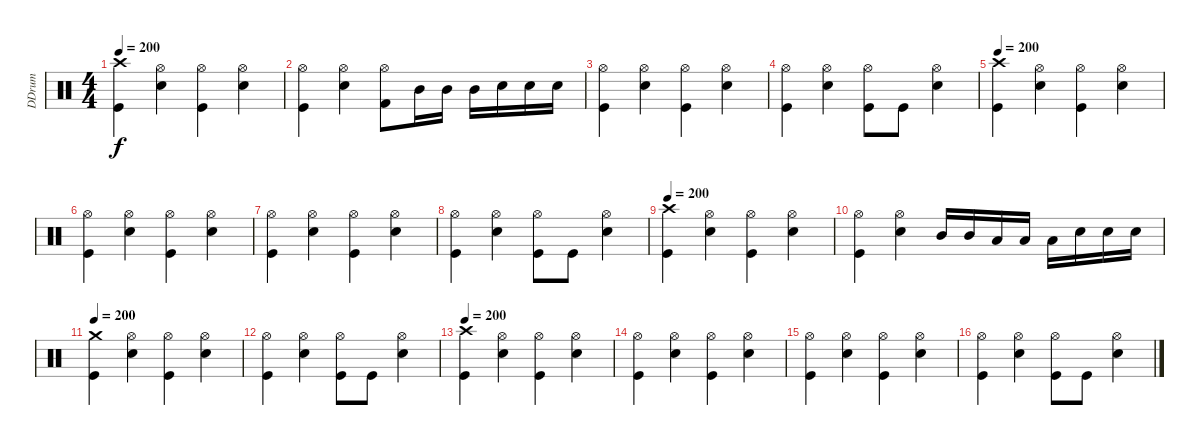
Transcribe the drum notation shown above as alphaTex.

\track ("DDrum" "DDrum") {instrument percussion}
\staff {score}
\articulation defaults
\ts (4 4)
\tempo 200
\clef neutral
\ks c
("Crash high (hit)" "Kick (hit)").4{dy f} ("Hi-Hat (open)" "Electric Snare (hit)").4 ("Hi-Hat (open)" "Kick (hit)").4 ("Hi-Hat (open)" "Electric Snare (hit)").4 |
("Hi-Hat (open)" "Kick (hit)").4 ("Hi-Hat (open)" "Electric Snare (hit)").4 ("Hi-Hat (open)" "Kick (hit) 2").8 "Mid Tom (hit)".16 "Mid Tom (hit)".16 "Mid Tom (hit)".16 "Electric Snare (hit)".16 "Electric Snare (hit)".16 "Electric Snare (hit)".16 |
("Hi-Hat (open)" "Kick (hit)").4 ("Hi-Hat (open)" "Electric Snare (hit)").4 ("Hi-Hat (open)" "Kick (hit)").4 ("Hi-Hat (open)" "Electric Snare (hit)").4 |
("Hi-Hat (open)" "Kick (hit)").4 ("Hi-Hat (open)" "Electric Snare (hit)").4 ("Hi-Hat (open)" "Kick (hit)").8 "Kick (hit)".8 ("Hi-Hat (open)" "Electric Snare (hit)").4 |
\tempo 200
("Crash high (hit)" "Kick (hit)").4 ("Hi-Hat (open)" "Electric Snare (hit)").4 ("Hi-Hat (open)" "Kick (hit)").4 ("Hi-Hat (open)" "Electric Snare (hit)").4 |
("Hi-Hat (open)" "Kick (hit)").4 ("Hi-Hat (open)" "Electric Snare (hit)").4 ("Hi-Hat (open)" "Kick (hit)").4 ("Hi-Hat (open)" "Electric Snare (hit)").4 |
("Hi-Hat (open)" "Kick (hit)").4 ("Hi-Hat (open)" "Electric Snare (hit)").4 ("Hi-Hat (open)" "Kick (hit)").4 ("Hi-Hat (open)" "Electric Snare (hit)").4 |
("Hi-Hat (open)" "Kick (hit)").4 ("Hi-Hat (open)" "Electric Snare (hit)").4 ("Hi-Hat (open)" "Kick (hit)").8 "Kick (hit)".8 ("Hi-Hat (open)" "Electric Snare (hit)").4 |
\tempo 200
("Crash high (hit)" "Kick (hit)").4 ("Hi-Hat (open)" "Electric Snare (hit)").4 ("Hi-Hat (open)" "Kick (hit)").4 ("Hi-Hat (open)" "Electric Snare (hit)").4 |
("Hi-Hat (open)" "Kick (hit)").4 ("Hi-Hat (open)" "Electric Snare (hit)").4 "Mid Tom (hit)".16 "Mid Tom (hit)".16 "Low Tom (hit)".16 "Low Tom (hit)".16 "Low Tom (hit)".16 "Electric Snare (hit)".16 "Electric Snare (hit)".16 "Electric Snare (hit)".16 |
\tempo 200
("Crash medium (hit)" "Kick (hit)").4 ("Hi-Hat (open)" "Electric Snare (hit)").4 ("Hi-Hat (open)" "Kick (hit)").4 ("Hi-Hat (open)" "Electric Snare (hit)").4 |
("Hi-Hat (open)" "Kick (hit)").4 ("Hi-Hat (open)" "Electric Snare (hit)").4 ("Hi-Hat (open)" "Kick (hit)").8 "Kick (hit)".8 ("Hi-Hat (open)" "Electric Snare (hit)").4 |
\tempo 200
("Crash high (hit)" "Kick (hit)").4 ("Hi-Hat (open)" "Electric Snare (hit)").4 ("Hi-Hat (open)" "Kick (hit)").4 ("Hi-Hat (open)" "Electric Snare (hit)").4 |
("Hi-Hat (open)" "Kick (hit)").4 ("Hi-Hat (open)" "Electric Snare (hit)").4 ("Hi-Hat (open)" "Kick (hit)").4 ("Hi-Hat (open)" "Electric Snare (hit)").4 |
("Hi-Hat (open)" "Kick (hit)").4 ("Hi-Hat (open)" "Electric Snare (hit)").4 ("Hi-Hat (open)" "Kick (hit)").4 ("Hi-Hat (open)" "Electric Snare (hit)").4 |
("Hi-Hat (open)" "Kick (hit)").4 ("Hi-Hat (open)" "Electric Snare (hit)").4 ("Hi-Hat (open)" "Kick (hit)").8 "Kick (hit)".8 ("Hi-Hat (open)" "Electric Snare (hit)").4
